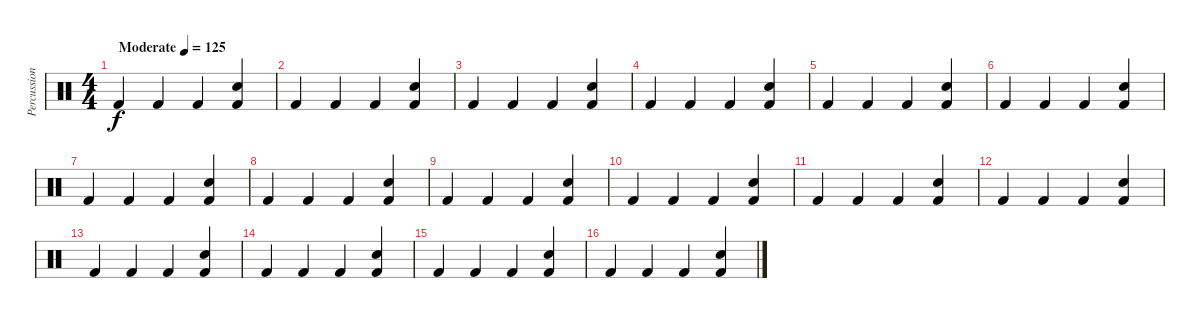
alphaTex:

\track ("Percussion" "Percussion") {instrument percussion}
\staff {score}
\articulation defaults
\ts (4 4)
\tempo (125 "Moderate")
\clef neutral
\ks c "Kick (hit) 2".4{dy f} "Kick (hit) 2".4 "Kick (hit) 2".4
("Kick (hit) 2" "Electric Snare (hit)").4 |
"Kick (hit) 2".4 "Kick (hit) 2".4 "Kick (hit) 2".4 ("Kick (hit) 2" "Electric Snare (hit)").4 |
"Kick (hit) 2".4 "Kick (hit) 2".4 "Kick (hit) 2".4 ("Kick (hit) 2" "Electric Snare (hit)").4 |
"Kick (hit) 2".4 "Kick (hit) 2".4 "Kick (hit) 2".4 ("Kick (hit) 2" "Electric Snare (hit)").4 |
"Kick (hit) 2".4 "Kick (hit) 2".4 "Kick (hit) 2".4 ("Kick (hit) 2" "Electric Snare (hit)").4 |
"Kick (hit) 2".4 "Kick (hit) 2".4 "Kick (hit) 2".4 ("Kick (hit) 2" "Electric Snare (hit)").4 |
"Kick (hit) 2".4 "Kick (hit) 2".4 "Kick (hit) 2".4 ("Kick (hit) 2" "Electric Snare (hit)").4 |
"Kick (hit) 2".4 "Kick (hit) 2".4 "Kick (hit) 2".4 ("Kick (hit) 2" "Electric Snare (hit)").4 |
"Kick (hit) 2".4 "Kick (hit) 2".4 "Kick (hit) 2".4 ("Kick (hit) 2" "Electric Snare (hit)").4 |
"Kick (hit) 2".4 "Kick (hit) 2".4 "Kick (hit) 2".4 ("Kick (hit) 2" "Electric Snare (hit)").4 |
"Kick (hit) 2".4 "Kick (hit) 2".4 "Kick (hit) 2".4 ("Kick (hit) 2" "Electric Snare (hit)").4 |
"Kick (hit) 2".4 "Kick (hit) 2".4 "Kick (hit) 2".4 ("Kick (hit) 2" "Electric Snare (hit)").4 |
"Kick (hit) 2".4 "Kick (hit) 2".4 "Kick (hit) 2".4 ("Kick (hit) 2" "Electric Snare (hit)").4 |
"Kick (hit) 2".4 "Kick (hit) 2".4 "Kick (hit) 2".4 ("Kick (hit) 2" "Electric Snare (hit)").4 |
"Kick (hit) 2".4 "Kick (hit) 2".4 "Kick (hit) 2".4 ("Kick (hit) 2" "Electric Snare (hit)").4 |
"Kick (hit) 2".4 "Kick (hit) 2".4 "Kick (hit) 2".4 ("Kick (hit) 2" "Electric Snare (hit)").4
